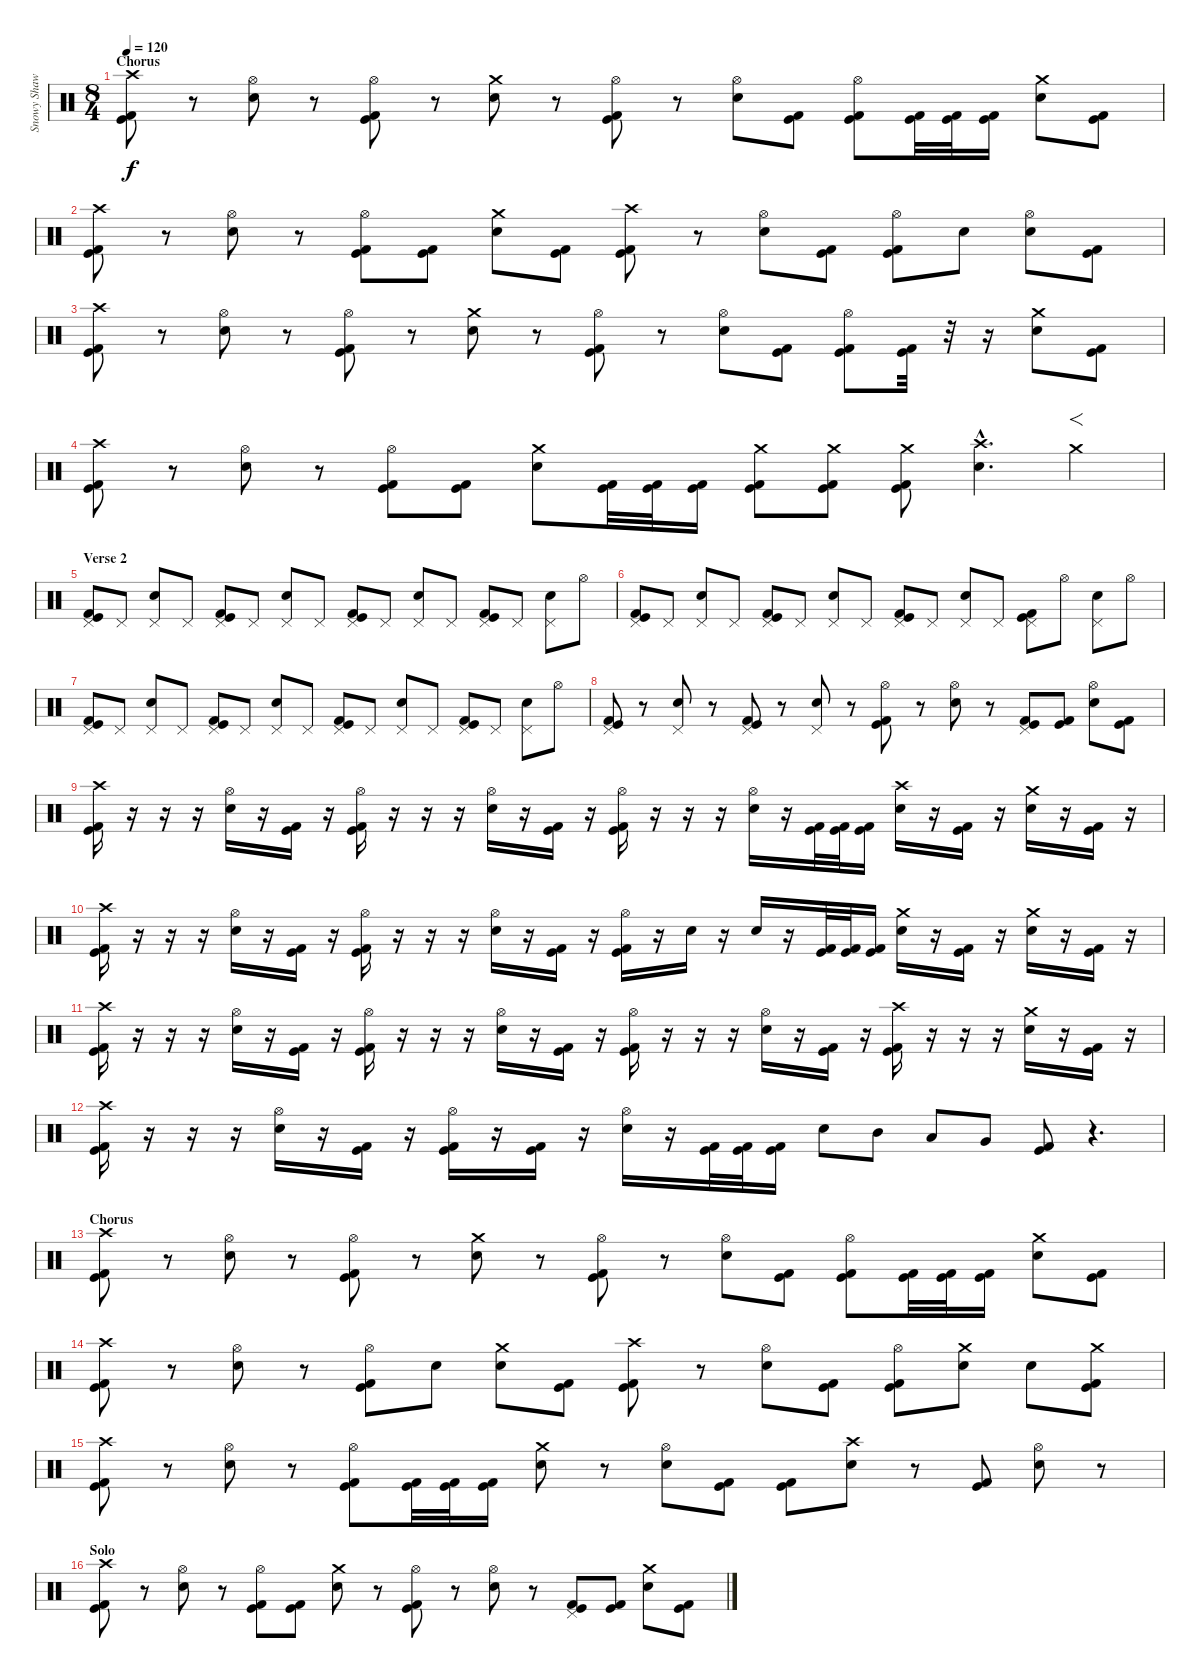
\track ("Snowy Shaw" "Snowy Shaw") {instrument percussion}
\staff {score}
\articulation defaults
\ts (8 4)
\section ("" "Chorus")
\tempo 120
\clef neutral
\ks c
("Crash high (hit)" "Kick (hit)" "Kick (hit) 2").8{dy f} r.8 ("Hi-Hat (open)" "Electric Snare (hit)").8 r.8 ("Hi-Hat (open)" "Kick (hit)" "Kick (hit) 2").8 r.8 ("Crash medium (hit)" "Electric Snare (hit)").8 r.8 ("Hi-Hat (open)" "Kick (hit) 2" "Kick (hit)").8 r.8 ("Hi-Hat (open)" "Electric Snare (hit)").8 ("Kick (hit) 2" "Kick (hit)").8 ("Hi-Hat (open)" "Kick (hit) 2" "Kick (hit)").8 ("Kick (hit) 2" "Kick (hit)").32 ("Kick (hit) 2" "Kick (hit)").32 ("Kick (hit) 2" "Kick (hit)").16 ("Crash medium (hit)" "Electric Snare (hit)").8 ("Kick (hit)" "Kick (hit) 2").8 |
("Crash high (hit)" "Kick (hit)" "Kick (hit) 2").8 r.8 ("Hi-Hat (open)" "Electric Snare (hit)").8 r.8 ("Hi-Hat (open)" "Kick (hit)" "Kick (hit) 2").8 ("Kick (hit) 2" "Kick (hit)").8 ("Crash medium (hit)" "Electric Snare (hit)").8 ("Kick (hit) 2" "Kick (hit)").8 ("Crash high (hit)" "Kick (hit) 2" "Kick (hit)").8 r.8 ("Hi-Hat (open)" "Electric Snare (hit)").8 ("Kick (hit) 2" "Kick (hit)").8 ("Hi-Hat (open)" "Kick (hit) 2" "Kick (hit)").8 "Electric Snare (hit)".8 ("Hi-Hat (open)" "Electric Snare (hit)").8 ("Kick (hit)" "Kick (hit) 2").8 |
("Crash high (hit)" "Kick (hit)" "Kick (hit) 2").8 r.8 ("Hi-Hat (open)" "Electric Snare (hit)").8 r.8 ("Hi-Hat (open)" "Kick (hit)" "Kick (hit) 2").8 r.8 ("Crash medium (hit)" "Electric Snare (hit)").8 r.8 ("Hi-Hat (open)" "Kick (hit) 2" "Kick (hit)").8 r.8 ("Hi-Hat (open)" "Electric Snare (hit)").8 ("Kick (hit) 2" "Kick (hit)").8 ("Hi-Hat (open)" "Kick (hit) 2" "Kick (hit)").8 ("Kick (hit) 2" "Kick (hit)").32 r.32 r.16 ("Crash medium (hit)" "Electric Snare (hit)").8 ("Kick (hit)" "Kick (hit) 2").8 |
("Crash high (hit)" "Kick (hit)" "Kick (hit) 2").8 r.8 ("Hi-Hat (open)" "Electric Snare (hit)").8 r.8 ("Hi-Hat (open)" "Kick (hit)" "Kick (hit) 2").8 ("Kick (hit) 2" "Kick (hit)").8 ("Crash medium (hit)" "Electric Snare (hit)").8 ("Kick (hit) 2" "Kick (hit)").32 ("Kick (hit) 2" "Kick (hit)").32 ("Kick (hit) 2" "Kick (hit)").16 ("Crash medium (hit)" "Kick (hit) 2" "Kick (hit)").8 ("Crash medium (hit)" "Kick (hit) 2" "Kick (hit)").8 ("Crash medium (hit)" "Kick (hit) 2" "Kick (hit)").8 ("Crash high (hit)"{hac} "Electric Snare (hit)"{hac}).4{d} "Crash medium (hit)".4{f} |
\section ("" "Verse 2")
("Pedal Hi-Hat (hit)" "Kick (hit)" "Kick (hit) 2").8 "Pedal Hi-Hat (hit)".8 ("Pedal Hi-Hat (hit)" "Electric Snare (hit)").8 "Pedal Hi-Hat (hit)".8 ("Pedal Hi-Hat (hit)" "Kick (hit) 2" "Kick (hit)").8 "Pedal Hi-Hat (hit)".8 ("Pedal Hi-Hat (hit)" "Electric Snare (hit)").8 "Pedal Hi-Hat (hit)".8 ("Pedal Hi-Hat (hit)" "Kick (hit) 2" "Kick (hit)").8 "Pedal Hi-Hat (hit)".8 ("Pedal Hi-Hat (hit)" "Electric Snare (hit)").8 "Pedal Hi-Hat (hit)".8 ("Pedal Hi-Hat (hit)" "Kick (hit) 2" "Kick (hit)").8 "Pedal Hi-Hat (hit)".8 ("Pedal Hi-Hat (hit)" "Electric Snare (hit)").8 "Hi-Hat (open)".8 |
("Pedal Hi-Hat (hit)" "Kick (hit)" "Kick (hit) 2").8 "Pedal Hi-Hat (hit)".8 ("Pedal Hi-Hat (hit)" "Electric Snare (hit)").8 "Pedal Hi-Hat (hit)".8 ("Pedal Hi-Hat (hit)" "Kick (hit) 2" "Kick (hit)").8 "Pedal Hi-Hat (hit)".8 ("Pedal Hi-Hat (hit)" "Electric Snare (hit)").8 "Pedal Hi-Hat (hit)".8 ("Pedal Hi-Hat (hit)" "Kick (hit) 2" "Kick (hit)").8 "Pedal Hi-Hat (hit)".8 ("Pedal Hi-Hat (hit)" "Electric Snare (hit)").8 "Pedal Hi-Hat (hit)".8 ("Pedal Hi-Hat (hit)" "Kick (hit) 2" "Kick (hit)").8 "Hi-Hat (open)".8 ("Pedal Hi-Hat (hit)" "Electric Snare (hit)").8 "Hi-Hat (open)".8 |
("Pedal Hi-Hat (hit)" "Kick (hit)" "Kick (hit) 2").8 "Pedal Hi-Hat (hit)".8 ("Pedal Hi-Hat (hit)" "Electric Snare (hit)").8 "Pedal Hi-Hat (hit)".8 ("Pedal Hi-Hat (hit)" "Kick (hit) 2" "Kick (hit)").8 "Pedal Hi-Hat (hit)".8 ("Pedal Hi-Hat (hit)" "Electric Snare (hit)").8 "Pedal Hi-Hat (hit)".8 ("Pedal Hi-Hat (hit)" "Kick (hit) 2" "Kick (hit)").8 "Pedal Hi-Hat (hit)".8 ("Pedal Hi-Hat (hit)" "Electric Snare (hit)").8 "Pedal Hi-Hat (hit)".8 ("Pedal Hi-Hat (hit)" "Kick (hit) 2" "Kick (hit)").8 "Pedal Hi-Hat (hit)".8 ("Pedal Hi-Hat (hit)" "Electric Snare (hit)").8 "Hi-Hat (open)".8 |
("Pedal Hi-Hat (hit)" "Kick (hit)" "Kick (hit) 2").8 r.8 ("Pedal Hi-Hat (hit)" "Electric Snare (hit)").8 r.8 ("Pedal Hi-Hat (hit)" "Kick (hit) 2" "Kick (hit)").8 r.8 ("Pedal Hi-Hat (hit)" "Electric Snare (hit)").8 r.8 ("Hi-Hat (open)" "Kick (hit) 2" "Kick (hit)").8 r.8 ("Hi-Hat (open)" "Electric Snare (hit)").8 r.8 ("Pedal Hi-Hat (hit)" "Kick (hit) 2" "Kick (hit)").8 ("Kick (hit) 2" "Kick (hit)").8 ("Hi-Hat (open)" "Electric Snare (hit)").8 ("Kick (hit) 2" "Kick (hit)").8 |
("Crash high (hit)" "Kick (hit) 2" "Kick (hit)").16 r.16 r.16 r.16 ("Hi-Hat (open)" "Electric Snare (hit)").16 r.16 ("Kick (hit) 2" "Kick (hit)").16 r.16 ("Hi-Hat (open)" "Kick (hit) 2" "Kick (hit)").16 r.16 r.16 r.16 ("Hi-Hat (open)" "Electric Snare (hit)").16 r.16 ("Kick (hit) 2" "Kick (hit)").16 r.16 ("Hi-Hat (open)" "Kick (hit) 2" "Kick (hit)").16 r.16 r.16 r.16 ("Hi-Hat (open)" "Electric Snare (hit)").16 r.16 ("Kick (hit) 2" "Kick (hit)").32 ("Kick (hit) 2" "Kick (hit)").32 ("Kick (hit) 2" "Kick (hit)").16 ("Crash high (hit)" "Electric Snare (hit)").16 r.16 ("Kick (hit) 2" "Kick (hit)").16 r.16 ("Crash medium (hit)" "Electric Snare (hit)").16 r.16 ("Kick (hit) 2" "Kick (hit)").16 r.16 |
("Crash high (hit)" "Kick (hit) 2" "Kick (hit)").16 r.16 r.16 r.16 ("Hi-Hat (open)" "Electric Snare (hit)").16 r.16 ("Kick (hit) 2" "Kick (hit)").16 r.16 ("Hi-Hat (open)" "Kick (hit) 2" "Kick (hit)").16 r.16 r.16 r.16 ("Hi-Hat (open)" "Electric Snare (hit)").16 r.16 ("Kick (hit) 2" "Kick (hit)").16 r.16 ("Hi-Hat (open)" "Kick (hit) 2" "Kick (hit)").16 r.16 "Electric Snare (hit)".16 r.16 "Electric Snare (hit)".16 r.16 ("Kick (hit) 2" "Kick (hit)").32 ("Kick (hit) 2" "Kick (hit)").32 ("Kick (hit) 2" "Kick (hit)").16 ("Crash medium (hit)" "Electric Snare (hit)").16 r.16 ("Kick (hit)" "Kick (hit) 2").16 r.16 ("Crash medium (hit)" "Electric Snare (hit)").16 r.16 ("Kick (hit)" "Kick (hit) 2").16 r.16 |
("Crash high (hit)" "Kick (hit) 2" "Kick (hit)").16 r.16 r.16 r.16 ("Hi-Hat (open)" "Electric Snare (hit)").16 r.16 ("Kick (hit) 2" "Kick (hit)").16 r.16 ("Hi-Hat (open)" "Kick (hit) 2" "Kick (hit)").16 r.16 r.16 r.16 ("Hi-Hat (open)" "Electric Snare (hit)").16 r.16 ("Kick (hit) 2" "Kick (hit)").16 r.16 ("Hi-Hat (open)" "Kick (hit) 2" "Kick (hit)").16 r.16 r.16 r.16 ("Hi-Hat (open)" "Electric Snare (hit)").16 r.16 ("Kick (hit) 2" "Kick (hit)").16 r.16 ("Crash high (hit)" "Kick (hit) 2" "Kick (hit)").16 r.16 r.16 r.16 ("Crash medium (hit)" "Electric Snare (hit)").16 r.16 ("Kick (hit) 2" "Kick (hit)").16 r.16 |
("Crash high (hit)" "Kick (hit) 2" "Kick (hit)").16 r.16 r.16 r.16 ("Hi-Hat (open)" "Electric Snare (hit)").16 r.16 ("Kick (hit) 2" "Kick (hit)").16 r.16 ("Hi-Hat (open)" "Kick (hit) 2" "Kick (hit)").16 r.16 ("Kick (hit) 2" "Kick (hit)").16 r.16 ("Hi-Hat (open)" "Electric Snare (hit)").16 r.16 ("Kick (hit) 2" "Kick (hit)").32 ("Kick (hit) 2" "Kick (hit)").32 ("Kick (hit) 2" "Kick (hit)").16 "Electric Snare (hit)".8 "Mid Tom (hit)".8 "Low Tom (hit)".8 "Very Low Tom (hit)".8 ("Kick (hit) 2" "Kick (hit)").8 r.4{d} |
\section ("" "Chorus")
("Crash high (hit)" "Kick (hit)" "Kick (hit) 2").8 r.8 ("Hi-Hat (open)" "Electric Snare (hit)").8 r.8 ("Hi-Hat (open)" "Kick (hit)" "Kick (hit) 2").8 r.8 ("Crash medium (hit)" "Electric Snare (hit)").8 r.8 ("Hi-Hat (open)" "Kick (hit) 2" "Kick (hit)").8 r.8 ("Hi-Hat (open)" "Electric Snare (hit)").8 ("Kick (hit) 2" "Kick (hit)").8 ("Hi-Hat (open)" "Kick (hit) 2" "Kick (hit)").8 ("Kick (hit) 2" "Kick (hit)").32 ("Kick (hit) 2" "Kick (hit)").32 ("Kick (hit) 2" "Kick (hit)").16 ("Crash medium (hit)" "Electric Snare (hit)").8 ("Kick (hit)" "Kick (hit) 2").8 |
("Crash high (hit)" "Kick (hit)" "Kick (hit) 2").8 r.8 ("Hi-Hat (open)" "Electric Snare (hit)").8 r.8 ("Hi-Hat (open)" "Kick (hit)" "Kick (hit) 2").8 "Electric Snare (hit)".8 ("Crash medium (hit)" "Electric Snare (hit)").8 ("Kick (hit) 2" "Kick (hit)").8 ("Crash high (hit)" "Kick (hit) 2" "Kick (hit)").8 r.8 ("Hi-Hat (open)" "Electric Snare (hit)").8 ("Kick (hit) 2" "Kick (hit)").8 ("Hi-Hat (open)" "Kick (hit) 2" "Kick (hit)").8 ("Crash medium (hit)" "Electric Snare (hit)").8 "Electric Snare (hit)".8 ("Crash medium (hit)" "Kick (hit)" "Kick (hit) 2").8 |
("Crash high (hit)" "Kick (hit)" "Kick (hit) 2").8 r.8 ("Hi-Hat (open)" "Electric Snare (hit)").8 r.8 ("Hi-Hat (open)" "Kick (hit)" "Kick (hit) 2").8 ("Kick (hit) 2" "Kick (hit)").32 ("Kick (hit) 2" "Kick (hit)").32 ("Kick (hit) 2" "Kick (hit)").16 ("Crash medium (hit)" "Electric Snare (hit)").8 r.8 ("Hi-Hat (open)" "Electric Snare (hit)").8 ("Kick (hit) 2" "Kick (hit)").8 ("Kick (hit) 2" "Kick (hit)").8 ("Crash high (hit)" "Electric Snare (hit)").8 r.8 ("Kick (hit) 2" "Kick (hit)").8 ("Hi-Hat (open)" "Electric Snare (hit)").8 r.8 |
\section ("" "Solo")
("Crash high (hit)" "Kick (hit) 2" "Kick (hit)").8 r.8 ("Hi-Hat (open)" "Electric Snare (hit)").8 r.8 ("Hi-Hat (open)" "Kick (hit) 2" "Kick (hit)").8 ("Kick (hit) 2" "Kick (hit)").8 ("Crash medium (hit)" "Electric Snare (hit)").8 r.8 ("Hi-Hat (open)" "Kick (hit) 2" "Kick (hit)").8 r.8 ("Hi-Hat (open)" "Electric Snare (hit)").8 r.8 ("Pedal Hi-Hat (hit)" "Kick (hit) 2" "Kick (hit)").8 ("Kick (hit) 2" "Kick (hit)").8 ("Crash medium (hit)" "Electric Snare (hit)").8 ("Kick (hit) 2" "Kick (hit)").8
